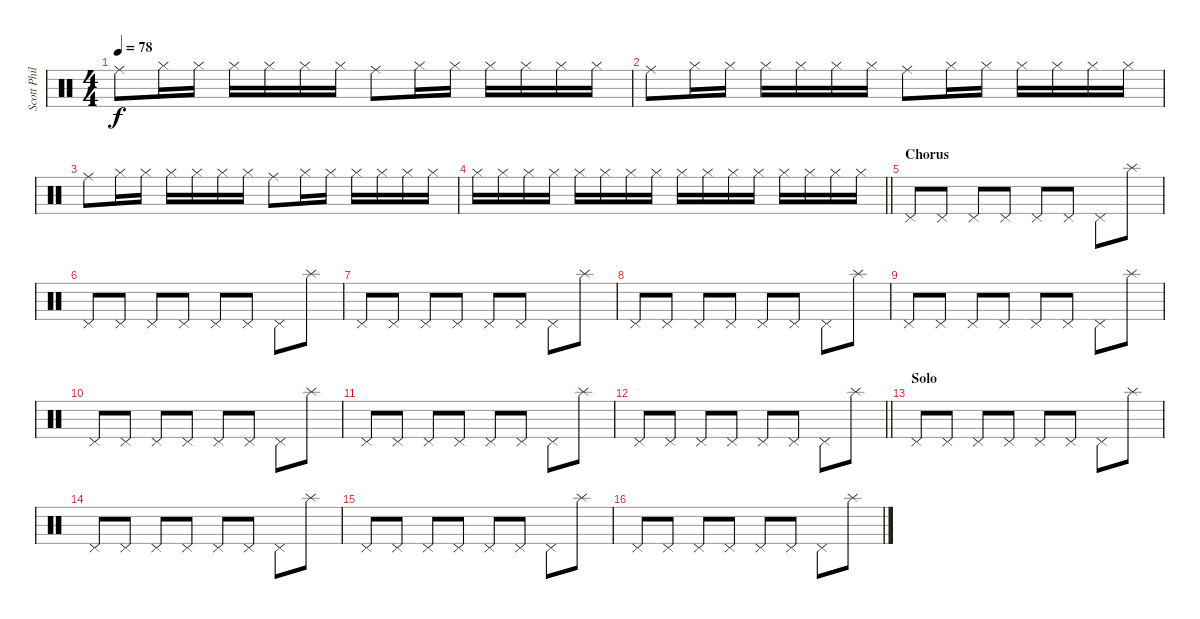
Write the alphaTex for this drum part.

\track ("Scott Phillips (Drums)" "Scott Phil") {instrument percussion}
\staff {score}
\articulation defaults
\ts (4 4)
\tempo 78
\clef neutral
\ks c "Ride (middle)".8{dy f} "Hi-Hat (closed)".16 "Hi-Hat (closed)".16 "Hi-Hat (closed)".16 "Hi-Hat (closed)".16 "Hi-Hat (closed)".16 "Hi-Hat (closed)".16 "Ride (middle)".8 "Hi-Hat (closed)".16 "Hi-Hat (closed)".16 "Hi-Hat (closed)".16 "Hi-Hat (closed)".16 "Hi-Hat (closed)".16 "Hi-Hat (closed)".16
|
"Ride (middle)".8 "Hi-Hat (closed)".16 "Hi-Hat (closed)".16 "Hi-Hat (closed)".16 "Hi-Hat (closed)".16 "Hi-Hat (closed)".16 "Hi-Hat (closed)".16 "Ride (middle)".8 "Hi-Hat (closed)".16 "Hi-Hat (closed)".16 "Hi-Hat (closed)".16 "Hi-Hat (closed)".16 "Hi-Hat (closed)".16 "Hi-Hat (closed)".16 |
"Ride (middle)".8 "Hi-Hat (closed)".16 "Hi-Hat (closed)".16 "Hi-Hat (closed)".16 "Hi-Hat (closed)".16 "Hi-Hat (closed)".16 "Hi-Hat (closed)".16 "Ride (middle)".8 "Hi-Hat (closed)".16 "Hi-Hat (closed)".16 "Hi-Hat (closed)".16 "Hi-Hat (closed)".16 "Hi-Hat (closed)".16 "Hi-Hat (closed)".16 |
\barLineRight lightlight "Hi-Hat (closed)".16 "Hi-Hat (closed)".16 "Hi-Hat (closed)".16 "Hi-Hat (closed)".16 "Hi-Hat (closed)".16 "Hi-Hat (closed)".16 "Hi-Hat (closed)".16 "Hi-Hat (closed)".16 "Hi-Hat (closed)".16 "Hi-Hat (closed)".16 "Hi-Hat (closed)".16 "Hi-Hat (closed)".16 "Hi-Hat (closed)".16 "Hi-Hat (closed)".16 "Hi-Hat (closed)".16 "Hi-Hat (closed)".16
|
\section ("" "Chorus")
"Pedal Hi-Hat (hit)".8 "Pedal Hi-Hat (hit)".8 "Pedal Hi-Hat (hit)".8 "Pedal Hi-Hat (hit)".8 "Pedal Hi-Hat (hit)".8 "Pedal Hi-Hat (hit)".8 "Pedal Hi-Hat (hit)".8 "Splash (hit)".8 |
"Pedal Hi-Hat (hit)".8 "Pedal Hi-Hat (hit)".8 "Pedal Hi-Hat (hit)".8 "Pedal Hi-Hat (hit)".8 "Pedal Hi-Hat (hit)".8 "Pedal Hi-Hat (hit)".8 "Pedal Hi-Hat (hit)".8 "Splash (hit)".8 |
"Pedal Hi-Hat (hit)".8 "Pedal Hi-Hat (hit)".8 "Pedal Hi-Hat (hit)".8 "Pedal Hi-Hat (hit)".8 "Pedal Hi-Hat (hit)".8 "Pedal Hi-Hat (hit)".8 "Pedal Hi-Hat (hit)".8 "Splash (hit)".8 |
"Pedal Hi-Hat (hit)".8 "Pedal Hi-Hat (hit)".8 "Pedal Hi-Hat (hit)".8 "Pedal Hi-Hat (hit)".8 "Pedal Hi-Hat (hit)".8 "Pedal Hi-Hat (hit)".8 "Pedal Hi-Hat (hit)".8 "Splash (hit)".8 |
"Pedal Hi-Hat (hit)".8 "Pedal Hi-Hat (hit)".8 "Pedal Hi-Hat (hit)".8 "Pedal Hi-Hat (hit)".8 "Pedal Hi-Hat (hit)".8 "Pedal Hi-Hat (hit)".8 "Pedal Hi-Hat (hit)".8 "Splash (hit)".8 |
"Pedal Hi-Hat (hit)".8 "Pedal Hi-Hat (hit)".8 "Pedal Hi-Hat (hit)".8 "Pedal Hi-Hat (hit)".8 "Pedal Hi-Hat (hit)".8 "Pedal Hi-Hat (hit)".8 "Pedal Hi-Hat (hit)".8 "Splash (hit)".8 |
"Pedal Hi-Hat (hit)".8 "Pedal Hi-Hat (hit)".8 "Pedal Hi-Hat (hit)".8 "Pedal Hi-Hat (hit)".8 "Pedal Hi-Hat (hit)".8 "Pedal Hi-Hat (hit)".8 "Pedal Hi-Hat (hit)".8 "Splash (hit)".8 |
\barLineRight lightlight "Pedal Hi-Hat (hit)".8 "Pedal Hi-Hat (hit)".8 "Pedal Hi-Hat (hit)".8 "Pedal Hi-Hat (hit)".8 "Pedal Hi-Hat (hit)".8 "Pedal Hi-Hat (hit)".8 "Pedal Hi-Hat (hit)".8 "Splash (hit)".8
|
\section ("" "Solo")
"Pedal Hi-Hat (hit)".8 "Pedal Hi-Hat (hit)".8 "Pedal Hi-Hat (hit)".8 "Pedal Hi-Hat (hit)".8 "Pedal Hi-Hat (hit)".8 "Pedal Hi-Hat (hit)".8 "Pedal Hi-Hat (hit)".8 "Splash (hit)".8 |
"Pedal Hi-Hat (hit)".8 "Pedal Hi-Hat (hit)".8 "Pedal Hi-Hat (hit)".8 "Pedal Hi-Hat (hit)".8 "Pedal Hi-Hat (hit)".8 "Pedal Hi-Hat (hit)".8 "Pedal Hi-Hat (hit)".8 "Splash (hit)".8 |
"Pedal Hi-Hat (hit)".8 "Pedal Hi-Hat (hit)".8 "Pedal Hi-Hat (hit)".8 "Pedal Hi-Hat (hit)".8 "Pedal Hi-Hat (hit)".8 "Pedal Hi-Hat (hit)".8 "Pedal Hi-Hat (hit)".8 "Splash (hit)".8 |
"Pedal Hi-Hat (hit)".8 "Pedal Hi-Hat (hit)".8 "Pedal Hi-Hat (hit)".8 "Pedal Hi-Hat (hit)".8 "Pedal Hi-Hat (hit)".8 "Pedal Hi-Hat (hit)".8 "Pedal Hi-Hat (hit)".8 "Splash (hit)".8
